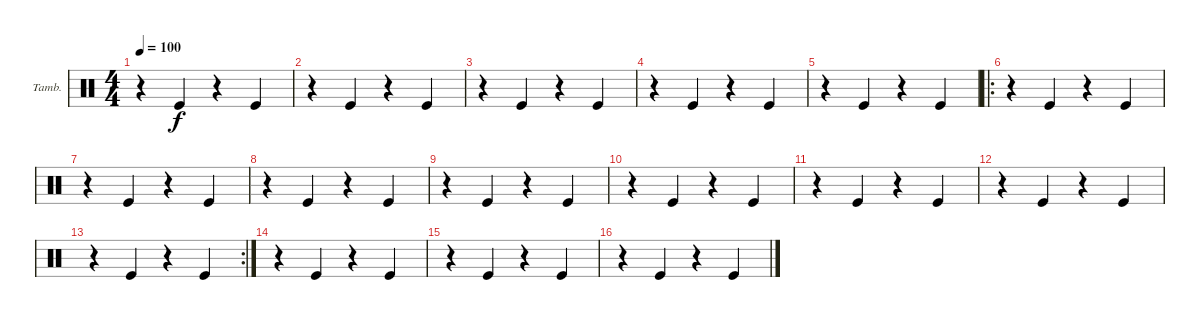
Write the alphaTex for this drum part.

\defaultSystemsLayout 4
\bracketExtendMode nobrackets
\firstSystemTrackNameOrientation horizontal
\otherSystemsTrackNameOrientation horizontal
\track ("Tambourine" "Tamb.") {instrument percussion}
\staff {score}
\articulation defaults
\ts (4 4)
\tempo 100
\clef neutral
\ks c
r.4{dy f} "Kick (hit)".4 r.4 "Kick (hit)".4 |
r.4 "Kick (hit)".4 r.4 "Kick (hit)".4 |
r.4 "Kick (hit)".4 r.4 "Kick (hit)".4 |
r.4 "Kick (hit)".4 r.4 "Kick (hit)".4 |
r.4 "Kick (hit)".4 r.4 "Kick (hit)".4 |
\ro
r.4 "Kick (hit)".4 r.4 "Kick (hit)".4 |
r.4 "Kick (hit)".4 r.4 "Kick (hit)".4 |
r.4 "Kick (hit)".4 r.4 "Kick (hit)".4 |
r.4 "Kick (hit)".4 r.4 "Kick (hit)".4 |
r.4 "Kick (hit)".4 r.4 "Kick (hit)".4 |
r.4 "Kick (hit)".4 r.4 "Kick (hit)".4 |
r.4 "Kick (hit)".4 r.4 "Kick (hit)".4 |
\rc 2
r.4 "Kick (hit)".4 r.4 "Kick (hit)".4 |
r.4 "Kick (hit)".4 r.4 "Kick (hit)".4 |
r.4 "Kick (hit)".4 r.4 "Kick (hit)".4 |
r.4 "Kick (hit)".4 r.4 "Kick (hit)".4
